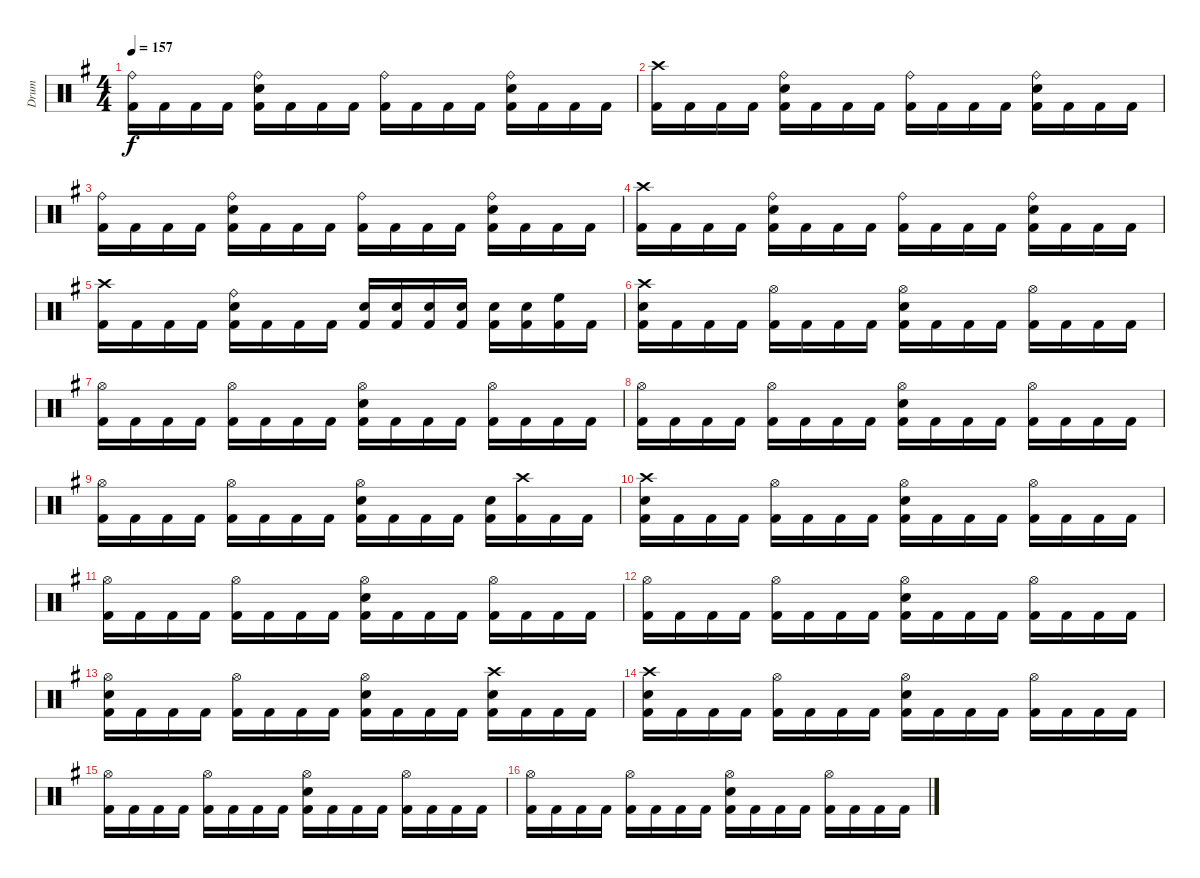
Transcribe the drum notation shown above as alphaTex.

\track ("Drum" "Drum") {instrument percussion}
\staff {score}
\articulation defaults
\ts (4 4)
\tempo 157
\clef neutral
\ks eminor
("Ride (bell)" "Kick (hit) 2").16{dy f} "Kick (hit) 2".16 "Kick (hit) 2".16 "Kick (hit) 2".16 ("Ride (bell)" "Snare (hit) 2" "Kick (hit) 2").16 "Kick (hit) 2".16 "Kick (hit) 2".16 "Kick (hit) 2".16 ("Ride (bell)" "Kick (hit) 2").16 "Kick (hit) 2".16 "Kick (hit) 2".16 "Kick (hit) 2".16 ("Ride (bell)" "Snare (hit) 2" "Kick (hit) 2").16 "Kick (hit) 2".16 "Kick (hit) 2".16 "Kick (hit) 2".16 |
("Crash high (hit)" "Kick (hit) 2").16 "Kick (hit) 2".16 "Kick (hit) 2".16 "Kick (hit) 2".16 ("Ride (bell)" "Snare (hit) 2" "Kick (hit) 2").16 "Kick (hit) 2".16 "Kick (hit) 2".16 "Kick (hit) 2".16 ("Ride (bell)" "Kick (hit) 2").16 "Kick (hit) 2".16 "Kick (hit) 2".16 "Kick (hit) 2".16 ("Ride (bell)" "Snare (hit) 2" "Kick (hit) 2").16 "Kick (hit) 2".16 "Kick (hit) 2".16 "Kick (hit) 2".16 |
("Ride (bell)" "Kick (hit) 2").16 "Kick (hit) 2".16 "Kick (hit) 2".16 "Kick (hit) 2".16 ("Ride (bell)" "Snare (hit) 2" "Kick (hit) 2").16 "Kick (hit) 2".16 "Kick (hit) 2".16 "Kick (hit) 2".16 ("Ride (bell)" "Kick (hit) 2").16 "Kick (hit) 2".16 "Kick (hit) 2".16 "Kick (hit) 2".16 ("Ride (bell)" "Snare (hit) 2" "Kick (hit) 2").16 "Kick (hit) 2".16 "Kick (hit) 2".16 "Kick (hit) 2".16 |
("Crash high (hit)" "Kick (hit) 2").16 "Kick (hit) 2".16 "Kick (hit) 2".16 "Kick (hit) 2".16 ("Ride (bell)" "Snare (hit) 2" "Kick (hit) 2").16 "Kick (hit) 2".16 "Kick (hit) 2".16 "Kick (hit) 2".16 ("Ride (bell)" "Kick (hit) 2").16 "Kick (hit) 2".16 "Kick (hit) 2".16 "Kick (hit) 2".16 ("Ride (bell)" "Snare (hit) 2" "Kick (hit) 2").16 "Kick (hit) 2".16 "Kick (hit) 2".16 "Kick (hit) 2".16 |
("Crash high (hit)" "Kick (hit) 2").16 "Kick (hit) 2".16 "Kick (hit) 2".16 "Kick (hit) 2".16 ("Ride (bell)" "Snare (hit) 2" "Kick (hit) 2").16 "Kick (hit) 2".16 "Kick (hit) 2".16 "Kick (hit) 2".16 ("Snare (hit) 2" "Kick (hit) 2").16 ("Snare (hit) 2" "Kick (hit) 2").16 ("Snare (hit) 2" "Kick (hit) 2").16 ("Snare (hit) 2" "Kick (hit) 2").16 ("Snare (hit) 2" "Kick (hit) 2").16 ("Snare (hit) 2" "Kick (hit) 2").16 ("High Floor Tom (hit)" "Kick (hit) 2").16 "Kick (hit) 2".16 |
("Crash high (hit)" "Snare (hit) 2" "Kick (hit) 2").16 "Kick (hit) 2".16 "Kick (hit) 2".16 "Kick (hit) 2".16 ("Hi-Hat (open)" "Kick (hit) 2").16 "Kick (hit) 2".16 "Kick (hit) 2".16 "Kick (hit) 2".16 ("Hi-Hat (open)" "Snare (hit) 2" "Kick (hit) 2").16 "Kick (hit) 2".16 "Kick (hit) 2".16 "Kick (hit) 2".16 ("Hi-Hat (open)" "Kick (hit) 2").16 "Kick (hit) 2".16 "Kick (hit) 2".16 "Kick (hit) 2".16 |
("Hi-Hat (open)" "Kick (hit) 2").16 "Kick (hit) 2".16 "Kick (hit) 2".16 "Kick (hit) 2".16 ("Hi-Hat (open)" "Kick (hit) 2").16 "Kick (hit) 2".16 "Kick (hit) 2".16 "Kick (hit) 2".16 ("Hi-Hat (open)" "Snare (hit) 2" "Kick (hit) 2").16 "Kick (hit) 2".16 "Kick (hit) 2".16 "Kick (hit) 2".16 ("Hi-Hat (open)" "Kick (hit) 2").16 "Kick (hit) 2".16 "Kick (hit) 2".16 "Kick (hit) 2".16 |
("Hi-Hat (open)" "Kick (hit) 2").16 "Kick (hit) 2".16 "Kick (hit) 2".16 "Kick (hit) 2".16 ("Hi-Hat (open)" "Kick (hit) 2").16 "Kick (hit) 2".16 "Kick (hit) 2".16 "Kick (hit) 2".16 ("Hi-Hat (open)" "Snare (hit) 2" "Kick (hit) 2").16 "Kick (hit) 2".16 "Kick (hit) 2".16 "Kick (hit) 2".16 ("Hi-Hat (open)" "Kick (hit) 2").16 "Kick (hit) 2".16 "Kick (hit) 2".16 "Kick (hit) 2".16 |
("Hi-Hat (open)" "Kick (hit) 2").16 "Kick (hit) 2".16 "Kick (hit) 2".16 "Kick (hit) 2".16 ("Hi-Hat (open)" "Kick (hit) 2").16 "Kick (hit) 2".16 "Kick (hit) 2".16 "Kick (hit) 2".16 ("Hi-Hat (open)" "Snare (hit) 2" "Kick (hit) 2").16 "Kick (hit) 2".16 "Kick (hit) 2".16 "Kick (hit) 2".16 ("Snare (hit) 2" "Kick (hit) 2").16 ("Crash high (hit)" "Kick (hit) 2").16 "Kick (hit) 2".16 "Kick (hit) 2".16 |
("Crash high (hit)" "Snare (hit) 2" "Kick (hit) 2").16 "Kick (hit) 2".16 "Kick (hit) 2".16 "Kick (hit) 2".16 ("Hi-Hat (open)" "Kick (hit) 2").16 "Kick (hit) 2".16 "Kick (hit) 2".16 "Kick (hit) 2".16 ("Hi-Hat (open)" "Snare (hit) 2" "Kick (hit) 2").16 "Kick (hit) 2".16 "Kick (hit) 2".16 "Kick (hit) 2".16 ("Hi-Hat (open)" "Kick (hit) 2").16 "Kick (hit) 2".16 "Kick (hit) 2".16 "Kick (hit) 2".16 |
("Hi-Hat (open)" "Kick (hit) 2").16 "Kick (hit) 2".16 "Kick (hit) 2".16 "Kick (hit) 2".16 ("Hi-Hat (open)" "Kick (hit) 2").16 "Kick (hit) 2".16 "Kick (hit) 2".16 "Kick (hit) 2".16 ("Hi-Hat (open)" "Snare (hit) 2" "Kick (hit) 2").16 "Kick (hit) 2".16 "Kick (hit) 2".16 "Kick (hit) 2".16 ("Hi-Hat (open)" "Kick (hit) 2").16 "Kick (hit) 2".16 "Kick (hit) 2".16 "Kick (hit) 2".16 |
("Hi-Hat (open)" "Kick (hit) 2").16 "Kick (hit) 2".16 "Kick (hit) 2".16 "Kick (hit) 2".16 ("Hi-Hat (open)" "Kick (hit) 2").16 "Kick (hit) 2".16 "Kick (hit) 2".16 "Kick (hit) 2".16 ("Hi-Hat (open)" "Snare (hit) 2" "Kick (hit) 2").16 "Kick (hit) 2".16 "Kick (hit) 2".16 "Kick (hit) 2".16 ("Hi-Hat (open)" "Kick (hit) 2").16 "Kick (hit) 2".16 "Kick (hit) 2".16 "Kick (hit) 2".16 |
("Hi-Hat (open)" "Snare (hit) 2" "Kick (hit) 2").16 "Kick (hit) 2".16 "Kick (hit) 2".16 "Kick (hit) 2".16 ("Hi-Hat (open)" "Kick (hit) 2").16 "Kick (hit) 2".16 "Kick (hit) 2".16 "Kick (hit) 2".16 ("Hi-Hat (open)" "Snare (hit) 2" "Kick (hit) 2").16 "Kick (hit) 2".16 "Kick (hit) 2".16 "Kick (hit) 2".16 ("Crash high (hit)" "Snare (hit) 2" "Kick (hit) 2").16 "Kick (hit) 2".16 "Kick (hit) 2".16 "Kick (hit) 2".16 |
("Crash high (hit)" "Snare (hit) 2" "Kick (hit) 2").16 "Kick (hit) 2".16 "Kick (hit) 2".16 "Kick (hit) 2".16 ("Hi-Hat (open)" "Kick (hit) 2").16 "Kick (hit) 2".16 "Kick (hit) 2".16 "Kick (hit) 2".16 ("Hi-Hat (open)" "Snare (hit) 2" "Kick (hit) 2").16 "Kick (hit) 2".16 "Kick (hit) 2".16 "Kick (hit) 2".16 ("Hi-Hat (open)" "Kick (hit) 2").16 "Kick (hit) 2".16 "Kick (hit) 2".16 "Kick (hit) 2".16 |
("Hi-Hat (open)" "Kick (hit) 2").16 "Kick (hit) 2".16 "Kick (hit) 2".16 "Kick (hit) 2".16 ("Hi-Hat (open)" "Kick (hit) 2").16 "Kick (hit) 2".16 "Kick (hit) 2".16 "Kick (hit) 2".16 ("Hi-Hat (open)" "Snare (hit) 2" "Kick (hit) 2").16 "Kick (hit) 2".16 "Kick (hit) 2".16 "Kick (hit) 2".16 ("Hi-Hat (open)" "Kick (hit) 2").16 "Kick (hit) 2".16 "Kick (hit) 2".16 "Kick (hit) 2".16 |
("Hi-Hat (open)" "Kick (hit) 2").16 "Kick (hit) 2".16 "Kick (hit) 2".16 "Kick (hit) 2".16 ("Hi-Hat (open)" "Kick (hit) 2").16 "Kick (hit) 2".16 "Kick (hit) 2".16 "Kick (hit) 2".16 ("Hi-Hat (open)" "Snare (hit) 2" "Kick (hit) 2").16 "Kick (hit) 2".16 "Kick (hit) 2".16 "Kick (hit) 2".16 ("Hi-Hat (open)" "Kick (hit) 2").16 "Kick (hit) 2".16 "Kick (hit) 2".16 "Kick (hit) 2".16
